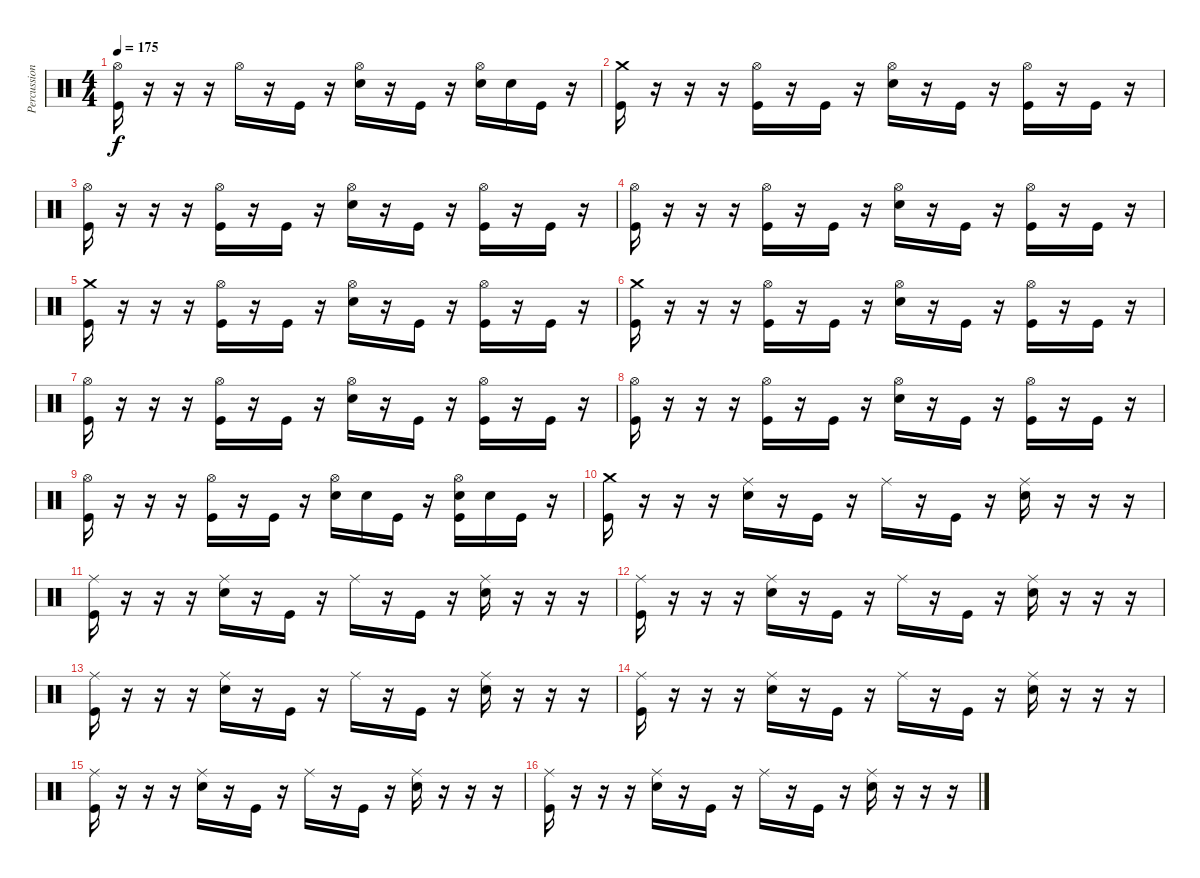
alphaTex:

\track ("Percussions" "Percussion") {instrument percussion}
\staff {score}
\articulation defaults
\ts (4 4)
\tempo 175
\clef neutral
\ks c
("Hi-Hat (open)" "Kick (hit)").16{dy f} r.16 r.16 r.16 "Hi-Hat (open)".16 r.16 "Kick (hit)".16 r.16 ("Hi-Hat (open)" "Electric Snare (hit)").16 r.16 "Kick (hit)".16 r.16 ("Hi-Hat (open)" "Electric Snare (hit)").16 "Electric Snare (hit)".16 "Kick (hit)".16 r.16 |
("Crash medium (hit)" "Kick (hit)").16 r.16 r.16 r.16 ("Hi-Hat (open)" "Kick (hit)").16 r.16 "Kick (hit)".16 r.16 ("Hi-Hat (open)" "Electric Snare (hit)").16 r.16 "Kick (hit)".16 r.16 ("Hi-Hat (open)" "Kick (hit)").16 r.16 "Kick (hit)".16 r.16 |
("Hi-Hat (open)" "Kick (hit)").16 r.16 r.16 r.16 ("Hi-Hat (open)" "Kick (hit)").16 r.16 "Kick (hit)".16 r.16 ("Hi-Hat (open)" "Electric Snare (hit)").16 r.16 "Kick (hit)".16 r.16 ("Hi-Hat (open)" "Kick (hit)").16 r.16 "Kick (hit)".16 r.16 |
("Hi-Hat (open)" "Kick (hit)").16 r.16 r.16 r.16 ("Hi-Hat (open)" "Kick (hit)").16 r.16 "Kick (hit)".16 r.16 ("Hi-Hat (open)" "Electric Snare (hit)").16 r.16 "Kick (hit)".16 r.16 ("Hi-Hat (open)" "Kick (hit)").16 r.16 "Kick (hit)".16 r.16 |
("Crash medium (hit)" "Kick (hit)").16 r.16 r.16 r.16 ("Hi-Hat (open)" "Kick (hit)").16 r.16 "Kick (hit)".16 r.16 ("Hi-Hat (open)" "Electric Snare (hit)").16 r.16 "Kick (hit)".16 r.16 ("Hi-Hat (open)" "Kick (hit)").16 r.16 "Kick (hit)".16 r.16 |
("Crash medium (hit)" "Kick (hit)").16 r.16 r.16 r.16 ("Hi-Hat (open)" "Kick (hit)").16 r.16 "Kick (hit)".16 r.16 ("Hi-Hat (open)" "Electric Snare (hit)").16 r.16 "Kick (hit)".16 r.16 ("Hi-Hat (open)" "Kick (hit)").16 r.16 "Kick (hit)".16 r.16 |
("Hi-Hat (open)" "Kick (hit)").16 r.16 r.16 r.16 ("Hi-Hat (open)" "Kick (hit)").16 r.16 "Kick (hit)".16 r.16 ("Hi-Hat (open)" "Electric Snare (hit)").16 r.16 "Kick (hit)".16 r.16 ("Hi-Hat (open)" "Kick (hit)").16 r.16 "Kick (hit)".16 r.16 |
("Hi-Hat (open)" "Kick (hit)").16 r.16 r.16 r.16 ("Hi-Hat (open)" "Kick (hit)").16 r.16 "Kick (hit)".16 r.16 ("Hi-Hat (open)" "Electric Snare (hit)").16 r.16 "Kick (hit)".16 r.16 ("Hi-Hat (open)" "Kick (hit)").16 r.16 "Kick (hit)".16 r.16 |
("Hi-Hat (open)" "Kick (hit)").16 r.16 r.16 r.16 ("Hi-Hat (open)" "Kick (hit)").16 r.16 "Kick (hit)".16 r.16 ("Hi-Hat (open)" "Electric Snare (hit)").16 "Electric Snare (hit)".16 "Kick (hit)".16 r.16 ("Hi-Hat (open)" "Electric Snare (hit)" "Kick (hit)").16 "Electric Snare (hit)".16 "Kick (hit)".16 r.16 |
("Crash medium (hit)" "Kick (hit)").16 r.16 r.16 r.16 ("Ride (middle)" "Electric Snare (hit)").16 r.16 "Kick (hit)".16 r.16 "Ride (middle)".16 r.16 "Kick (hit)".16 r.16 ("Ride (middle)" "Electric Snare (hit)").16 r.16 r.16 r.16 |
("Ride (middle)" "Kick (hit)").16 r.16 r.16 r.16 ("Ride (middle)" "Electric Snare (hit)").16 r.16 "Kick (hit)".16 r.16 "Ride (middle)".16 r.16 "Kick (hit)".16 r.16 ("Ride (middle)" "Electric Snare (hit)").16 r.16 r.16 r.16 |
("Ride (middle)" "Kick (hit)").16 r.16 r.16 r.16 ("Ride (middle)" "Electric Snare (hit)").16 r.16 "Kick (hit)".16 r.16 "Ride (middle)".16 r.16 "Kick (hit)".16 r.16 ("Ride (middle)" "Electric Snare (hit)").16 r.16 r.16 r.16 |
("Ride (middle)" "Kick (hit)").16 r.16 r.16 r.16 ("Ride (middle)" "Electric Snare (hit)").16 r.16 "Kick (hit)".16 r.16 "Ride (middle)".16 r.16 "Kick (hit)".16 r.16 ("Ride (middle)" "Electric Snare (hit)").16 r.16 r.16 r.16 |
("Ride (middle)" "Kick (hit)").16 r.16 r.16 r.16 ("Ride (middle)" "Electric Snare (hit)").16 r.16 "Kick (hit)".16 r.16 "Ride (middle)".16 r.16 "Kick (hit)".16 r.16 ("Ride (middle)" "Electric Snare (hit)").16 r.16 r.16 r.16 |
("Ride (middle)" "Kick (hit)").16 r.16 r.16 r.16 ("Ride (middle)" "Electric Snare (hit)").16 r.16 "Kick (hit)".16 r.16 "Ride (middle)".16 r.16 "Kick (hit)".16 r.16 ("Ride (middle)" "Electric Snare (hit)").16 r.16 r.16 r.16 |
("Ride (middle)" "Kick (hit)").16 r.16 r.16 r.16 ("Ride (middle)" "Electric Snare (hit)").16 r.16 "Kick (hit)".16 r.16 "Ride (middle)".16 r.16 "Kick (hit)".16 r.16 ("Ride (middle)" "Electric Snare (hit)").16 r.16 r.16 r.16
